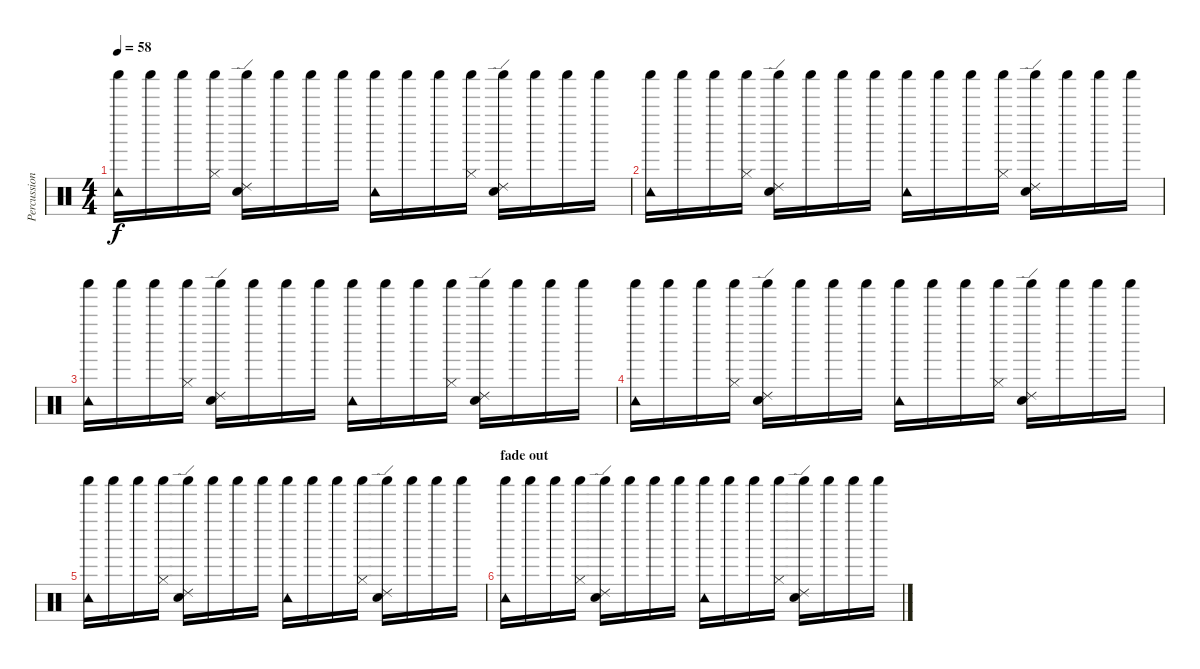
\track ("Percussion" "Percussion") {instrument percussion}
\staff {score}
\articulation defaults
\ts (4 4)
\tempo 58
\clef neutral
\ks c
("Shaker (hit)" "Tambourine (hit)").16{dy f} "Shaker (hit)".16 "Shaker (hit)".16 ("Shaker (hit)" "Hi-Hat (closed)").16 ("Shaker (hit)" "Ride (edge) 2" "Snare (hit) 2").16 "Shaker (hit)".16 "Shaker (hit)".16 "Shaker (hit)".16 ("Shaker (hit)" "Tambourine (hit)").16 "Shaker (hit)".16 "Shaker (hit)".16 ("Shaker (hit)" "Hi-Hat (closed)").16 ("Shaker (hit)" "Ride (edge) 2" "Snare (hit) 2").16 "Shaker (hit)".16 "Shaker (hit)".16 "Shaker (hit)".16 |
("Shaker (hit)" "Tambourine (hit)").16 "Shaker (hit)".16 "Shaker (hit)".16 ("Shaker (hit)" "Hi-Hat (closed)").16 ("Shaker (hit)" "Ride (edge) 2" "Snare (hit) 2").16 "Shaker (hit)".16 "Shaker (hit)".16 "Shaker (hit)".16 ("Shaker (hit)" "Tambourine (hit)").16 "Shaker (hit)".16 "Shaker (hit)".16 ("Shaker (hit)" "Hi-Hat (closed)").16 ("Shaker (hit)" "Ride (edge) 2" "Snare (hit) 2").16 "Shaker (hit)".16 "Shaker (hit)".16 "Shaker (hit)".16 |
("Shaker (hit)" "Tambourine (hit)").16 "Shaker (hit)".16 "Shaker (hit)".16 ("Shaker (hit)" "Hi-Hat (closed)").16 ("Shaker (hit)" "Ride (edge) 2" "Snare (hit) 2").16 "Shaker (hit)".16 "Shaker (hit)".16 "Shaker (hit)".16 ("Shaker (hit)" "Tambourine (hit)").16 "Shaker (hit)".16 "Shaker (hit)".16 ("Shaker (hit)" "Hi-Hat (closed)").16 ("Shaker (hit)" "Ride (edge) 2" "Snare (hit) 2").16 "Shaker (hit)".16 "Shaker (hit)".16 "Shaker (hit)".16 |
("Shaker (hit)" "Tambourine (hit)").16 "Shaker (hit)".16 "Shaker (hit)".16 ("Shaker (hit)" "Hi-Hat (closed)").16 ("Shaker (hit)" "Ride (edge) 2" "Snare (hit) 2").16 "Shaker (hit)".16 "Shaker (hit)".16 "Shaker (hit)".16 ("Shaker (hit)" "Tambourine (hit)").16 "Shaker (hit)".16 "Shaker (hit)".16 ("Shaker (hit)" "Hi-Hat (closed)").16 ("Shaker (hit)" "Ride (edge) 2" "Snare (hit) 2").16 "Shaker (hit)".16 "Shaker (hit)".16 "Shaker (hit)".16 |
("Shaker (hit)" "Tambourine (hit)").16 "Shaker (hit)".16 "Shaker (hit)".16 ("Shaker (hit)" "Hi-Hat (closed)").16 ("Shaker (hit)" "Ride (edge) 2" "Snare (hit) 2").16 "Shaker (hit)".16 "Shaker (hit)".16 "Shaker (hit)".16 ("Shaker (hit)" "Tambourine (hit)").16 "Shaker (hit)".16 "Shaker (hit)".16 ("Shaker (hit)" "Hi-Hat (closed)").16 ("Shaker (hit)" "Ride (edge) 2" "Snare (hit) 2").16 "Shaker (hit)".16 "Shaker (hit)".16 "Shaker (hit)".16 |
\section ("" "fade out")
("Shaker (hit)" "Tambourine (hit)").16 "Shaker (hit)".16 "Shaker (hit)".16 ("Shaker (hit)" "Hi-Hat (closed)").16 ("Shaker (hit)" "Ride (edge) 2" "Snare (hit) 2").16 "Shaker (hit)".16 "Shaker (hit)".16 "Shaker (hit)".16 ("Shaker (hit)" "Tambourine (hit)").16 "Shaker (hit)".16 "Shaker (hit)".16 ("Shaker (hit)" "Hi-Hat (closed)").16 ("Shaker (hit)" "Ride (edge) 2" "Snare (hit) 2").16 "Shaker (hit)".16 "Shaker (hit)".16 "Shaker (hit)".16
